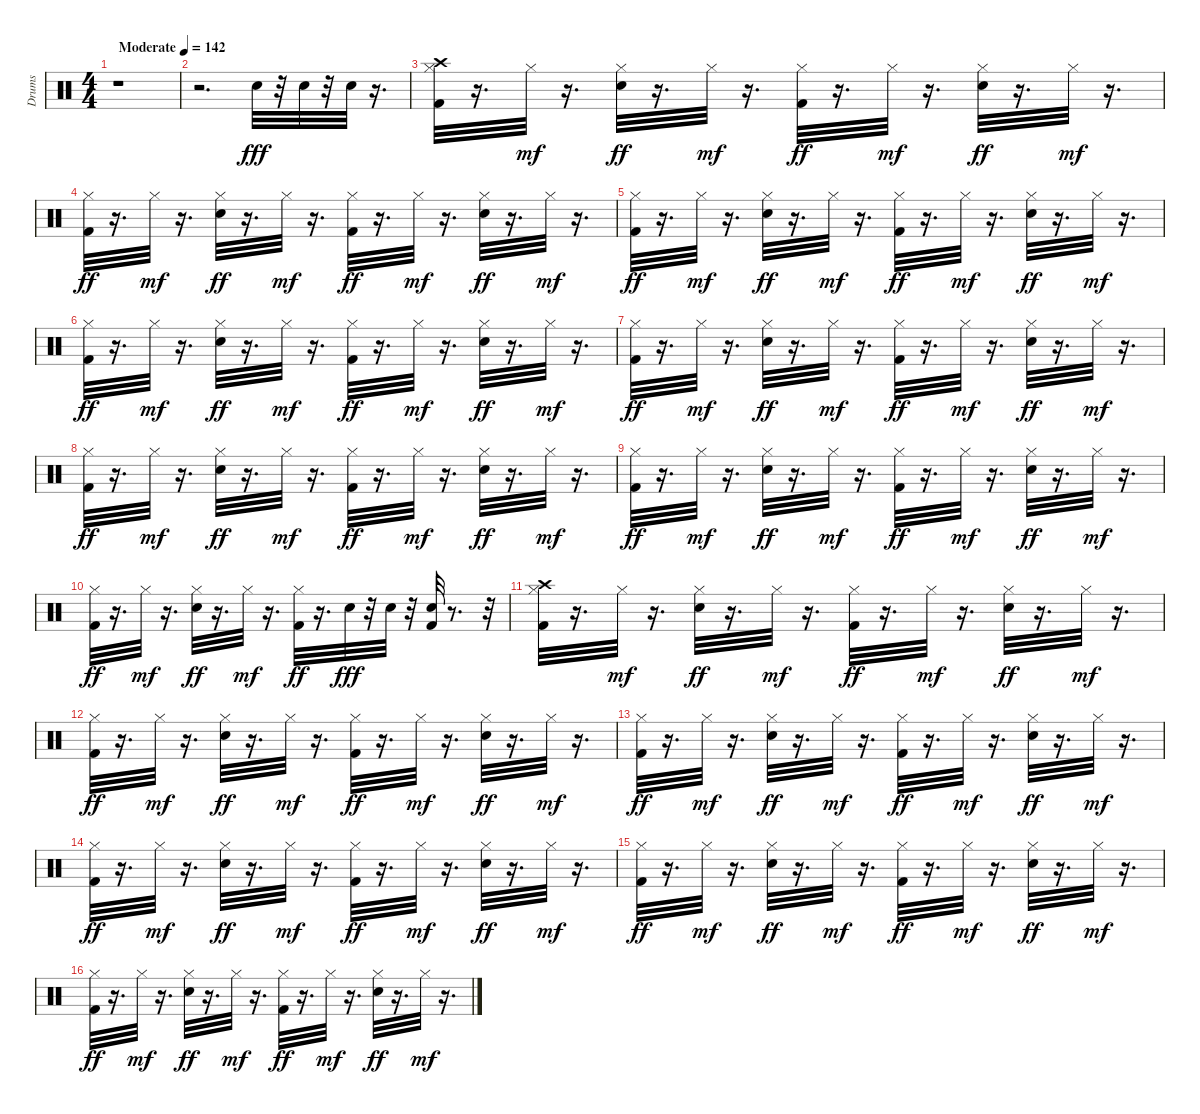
\track ("Drums" "Drums") {instrument percussion}
\staff {score}
\articulation defaults
\ts (4 4)
\tempo (142 "Moderate")
\clef neutral
\ks c
r.1{dy fff} |
r.2{d} "Snare (hit) 2".32 r.32 "Snare (hit) 2".32 r.32 "Snare (hit) 2".32 r.16{d} |
("Kick (hit) 2" "Hi-Hat (closed)" "Crash high (hit)").32 r.16{d} "Hi-Hat (closed)".32{dy mf} r.16{d} ("Snare (hit) 2" "Hi-Hat (closed)").32{dy ff} r.16{d} "Hi-Hat (closed)".32{dy mf} r.16{d} ("Kick (hit) 2" "Hi-Hat (closed)").32{dy ff} r.16{d} "Hi-Hat (closed)".32{dy mf} r.16{d} ("Snare (hit) 2" "Hi-Hat (closed)").32{dy ff} r.16{d} "Hi-Hat (closed)".32{dy mf} r.16{d} |
("Kick (hit) 2" "Hi-Hat (closed)").32{dy ff} r.16{d} "Hi-Hat (closed)".32{dy mf} r.16{d} ("Snare (hit) 2" "Hi-Hat (closed)").32{dy ff} r.16{d} "Hi-Hat (closed)".32{dy mf} r.16{d} ("Kick (hit) 2" "Hi-Hat (closed)").32{dy ff} r.16{d} "Hi-Hat (closed)".32{dy mf} r.16{d} ("Snare (hit) 2" "Hi-Hat (closed)").32{dy ff} r.16{d} "Hi-Hat (closed)".32{dy mf} r.16{d} |
("Kick (hit) 2" "Hi-Hat (closed)").32{dy ff} r.16{d} "Hi-Hat (closed)".32{dy mf} r.16{d} ("Snare (hit) 2" "Hi-Hat (closed)").32{dy ff} r.16{d} "Hi-Hat (closed)".32{dy mf} r.16{d} ("Kick (hit) 2" "Hi-Hat (closed)").32{dy ff} r.16{d} "Hi-Hat (closed)".32{dy mf} r.16{d} ("Snare (hit) 2" "Hi-Hat (closed)").32{dy ff} r.16{d} "Hi-Hat (closed)".32{dy mf} r.16{d} |
("Kick (hit) 2" "Hi-Hat (closed)").32{dy ff} r.16{d} "Hi-Hat (closed)".32{dy mf} r.16{d} ("Snare (hit) 2" "Hi-Hat (closed)").32{dy ff} r.16{d} "Hi-Hat (closed)".32{dy mf} r.16{d} ("Kick (hit) 2" "Hi-Hat (closed)").32{dy ff} r.16{d} "Hi-Hat (closed)".32{dy mf} r.16{d} ("Snare (hit) 2" "Hi-Hat (closed)").32{dy ff} r.16{d} "Hi-Hat (closed)".32{dy mf} r.16{d} |
("Kick (hit) 2" "Hi-Hat (closed)").32{dy ff} r.16{d} "Hi-Hat (closed)".32{dy mf} r.16{d} ("Snare (hit) 2" "Hi-Hat (closed)").32{dy ff} r.16{d} "Hi-Hat (closed)".32{dy mf} r.16{d} ("Kick (hit) 2" "Hi-Hat (closed)").32{dy ff} r.16{d} "Hi-Hat (closed)".32{dy mf} r.16{d} ("Snare (hit) 2" "Hi-Hat (closed)").32{dy ff} r.16{d} "Hi-Hat (closed)".32{dy mf} r.16{d} |
("Kick (hit) 2" "Hi-Hat (closed)").32{dy ff} r.16{d} "Hi-Hat (closed)".32{dy mf} r.16{d} ("Snare (hit) 2" "Hi-Hat (closed)").32{dy ff} r.16{d} "Hi-Hat (closed)".32{dy mf} r.16{d} ("Kick (hit) 2" "Hi-Hat (closed)").32{dy ff} r.16{d} "Hi-Hat (closed)".32{dy mf} r.16{d} ("Snare (hit) 2" "Hi-Hat (closed)").32{dy ff} r.16{d} "Hi-Hat (closed)".32{dy mf} r.16{d} |
("Kick (hit) 2" "Hi-Hat (closed)").32{dy ff} r.16{d} "Hi-Hat (closed)".32{dy mf} r.16{d} ("Snare (hit) 2" "Hi-Hat (closed)").32{dy ff} r.16{d} "Hi-Hat (closed)".32{dy mf} r.16{d} ("Kick (hit) 2" "Hi-Hat (closed)").32{dy ff} r.16{d} "Hi-Hat (closed)".32{dy mf} r.16{d} ("Snare (hit) 2" "Hi-Hat (closed)").32{dy ff} r.16{d} "Hi-Hat (closed)".32{dy mf} r.16{d} |
("Kick (hit) 2" "Hi-Hat (closed)").32{dy ff} r.16{d} "Hi-Hat (closed)".32{dy mf} r.16{d} ("Snare (hit) 2" "Hi-Hat (closed)").32{dy ff} r.16{d} "Hi-Hat (closed)".32{dy mf} r.16{d} ("Kick (hit) 2" "Hi-Hat (closed)").32{dy ff} r.16{d} "Snare (hit) 2".32{dy fff} r.32 "Snare (hit) 2".32 r.32 ("Kick (hit) 2" "Snare (hit) 2").32 r.8{d} r.32 |
("Kick (hit) 2" "Hi-Hat (closed)" "Crash high (hit)").32 r.16{d} "Hi-Hat (closed)".32{dy mf} r.16{d} ("Snare (hit) 2" "Hi-Hat (closed)").32{dy ff} r.16{d} "Hi-Hat (closed)".32{dy mf} r.16{d} ("Kick (hit) 2" "Hi-Hat (closed)").32{dy ff} r.16{d} "Hi-Hat (closed)".32{dy mf} r.16{d} ("Snare (hit) 2" "Hi-Hat (closed)").32{dy ff} r.16{d} "Hi-Hat (closed)".32{dy mf} r.16{d} |
("Kick (hit) 2" "Hi-Hat (closed)").32{dy ff} r.16{d} "Hi-Hat (closed)".32{dy mf} r.16{d} ("Snare (hit) 2" "Hi-Hat (closed)").32{dy ff} r.16{d} "Hi-Hat (closed)".32{dy mf} r.16{d} ("Kick (hit) 2" "Hi-Hat (closed)").32{dy ff} r.16{d} "Hi-Hat (closed)".32{dy mf} r.16{d} ("Snare (hit) 2" "Hi-Hat (closed)").32{dy ff} r.16{d} "Hi-Hat (closed)".32{dy mf} r.16{d} |
("Kick (hit) 2" "Hi-Hat (closed)").32{dy ff} r.16{d} "Hi-Hat (closed)".32{dy mf} r.16{d} ("Snare (hit) 2" "Hi-Hat (closed)").32{dy ff} r.16{d} "Hi-Hat (closed)".32{dy mf} r.16{d} ("Kick (hit) 2" "Hi-Hat (closed)").32{dy ff} r.16{d} "Hi-Hat (closed)".32{dy mf} r.16{d} ("Snare (hit) 2" "Hi-Hat (closed)").32{dy ff} r.16{d} "Hi-Hat (closed)".32{dy mf} r.16{d} |
("Kick (hit) 2" "Hi-Hat (closed)").32{dy ff} r.16{d} "Hi-Hat (closed)".32{dy mf} r.16{d} ("Snare (hit) 2" "Hi-Hat (closed)").32{dy ff} r.16{d} "Hi-Hat (closed)".32{dy mf} r.16{d} ("Kick (hit) 2" "Hi-Hat (closed)").32{dy ff} r.16{d} "Hi-Hat (closed)".32{dy mf} r.16{d} ("Snare (hit) 2" "Hi-Hat (closed)").32{dy ff} r.16{d} "Hi-Hat (closed)".32{dy mf} r.16{d} |
("Kick (hit) 2" "Hi-Hat (closed)").32{dy ff} r.16{d} "Hi-Hat (closed)".32{dy mf} r.16{d} ("Snare (hit) 2" "Hi-Hat (closed)").32{dy ff} r.16{d} "Hi-Hat (closed)".32{dy mf} r.16{d} ("Kick (hit) 2" "Hi-Hat (closed)").32{dy ff} r.16{d} "Hi-Hat (closed)".32{dy mf} r.16{d} ("Snare (hit) 2" "Hi-Hat (closed)").32{dy ff} r.16{d} "Hi-Hat (closed)".32{dy mf} r.16{d} |
("Kick (hit) 2" "Hi-Hat (closed)").32{dy ff} r.16{d} "Hi-Hat (closed)".32{dy mf} r.16{d} ("Snare (hit) 2" "Hi-Hat (closed)").32{dy ff} r.16{d} "Hi-Hat (closed)".32{dy mf} r.16{d} ("Kick (hit) 2" "Hi-Hat (closed)").32{dy ff} r.16{d} "Hi-Hat (closed)".32{dy mf} r.16{d} ("Snare (hit) 2" "Hi-Hat (closed)").32{dy ff} r.16{d} "Hi-Hat (closed)".32{dy mf} r.16{d}
